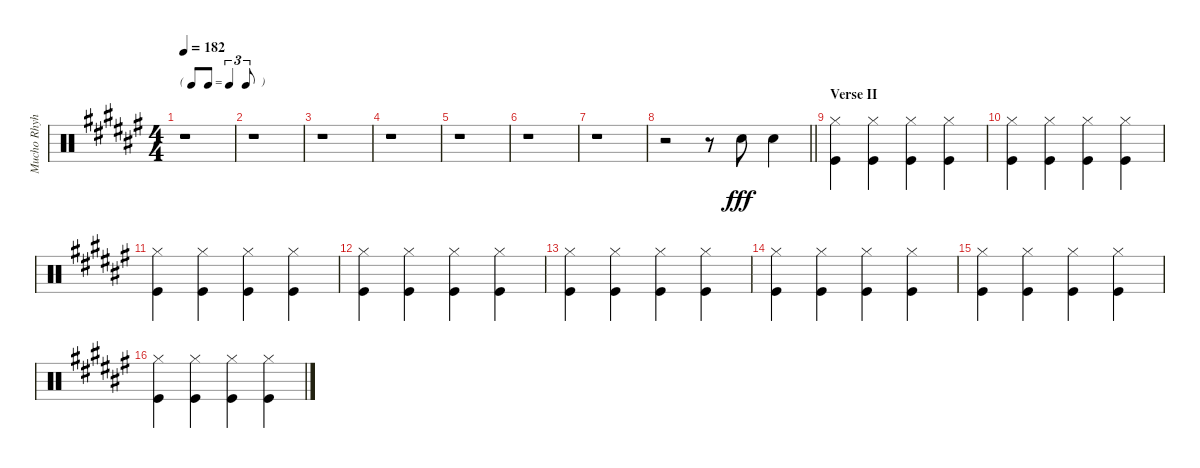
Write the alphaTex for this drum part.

\track ("Mucho Rhyhtm" "Mucho Rhyh") {instrument percussion}
\staff {score}
\articulation defaults
\ts (4 4)
\tf triplet8th
\tempo 182
\clef neutral
\ks f#
r.1{dy fff} |
r.1 |
r.1 |
r.1 |
r.1 |
r.1 |
r.1 |
\barLineRight lightlight
r.2 r.8 "Snare (hit) 2".8 "Snare (hit) 2".4 |
\section ("" "Verse II")
("Hi-Hat (closed)" "Kick (hit)").4 ("Hi-Hat (closed)" "Kick (hit)").4 ("Hi-Hat (closed)" "Kick (hit)").4 ("Hi-Hat (closed)" "Kick (hit)").4 |
("Hi-Hat (closed)" "Kick (hit)").4 ("Hi-Hat (closed)" "Kick (hit)").4 ("Hi-Hat (closed)" "Kick (hit)").4 ("Hi-Hat (closed)" "Kick (hit)").4 |
("Hi-Hat (closed)" "Kick (hit)").4 ("Hi-Hat (closed)" "Kick (hit)").4 ("Hi-Hat (closed)" "Kick (hit)").4 ("Hi-Hat (closed)" "Kick (hit)").4 |
("Hi-Hat (closed)" "Kick (hit)").4 ("Hi-Hat (closed)" "Kick (hit)").4 ("Hi-Hat (closed)" "Kick (hit)").4 ("Hi-Hat (closed)" "Kick (hit)").4 |
("Hi-Hat (closed)" "Kick (hit)").4 ("Hi-Hat (closed)" "Kick (hit)").4 ("Hi-Hat (closed)" "Kick (hit)").4 ("Hi-Hat (closed)" "Kick (hit)").4 |
("Hi-Hat (closed)" "Kick (hit)").4 ("Hi-Hat (closed)" "Kick (hit)").4 ("Hi-Hat (closed)" "Kick (hit)").4 ("Hi-Hat (closed)" "Kick (hit)").4 |
("Hi-Hat (closed)" "Kick (hit)").4 ("Hi-Hat (closed)" "Kick (hit)").4 ("Hi-Hat (closed)" "Kick (hit)").4 ("Hi-Hat (closed)" "Kick (hit)").4 |
("Hi-Hat (closed)" "Kick (hit)").4 ("Hi-Hat (closed)" "Kick (hit)").4 ("Hi-Hat (closed)" "Kick (hit)").4 ("Hi-Hat (closed)" "Kick (hit)").4
